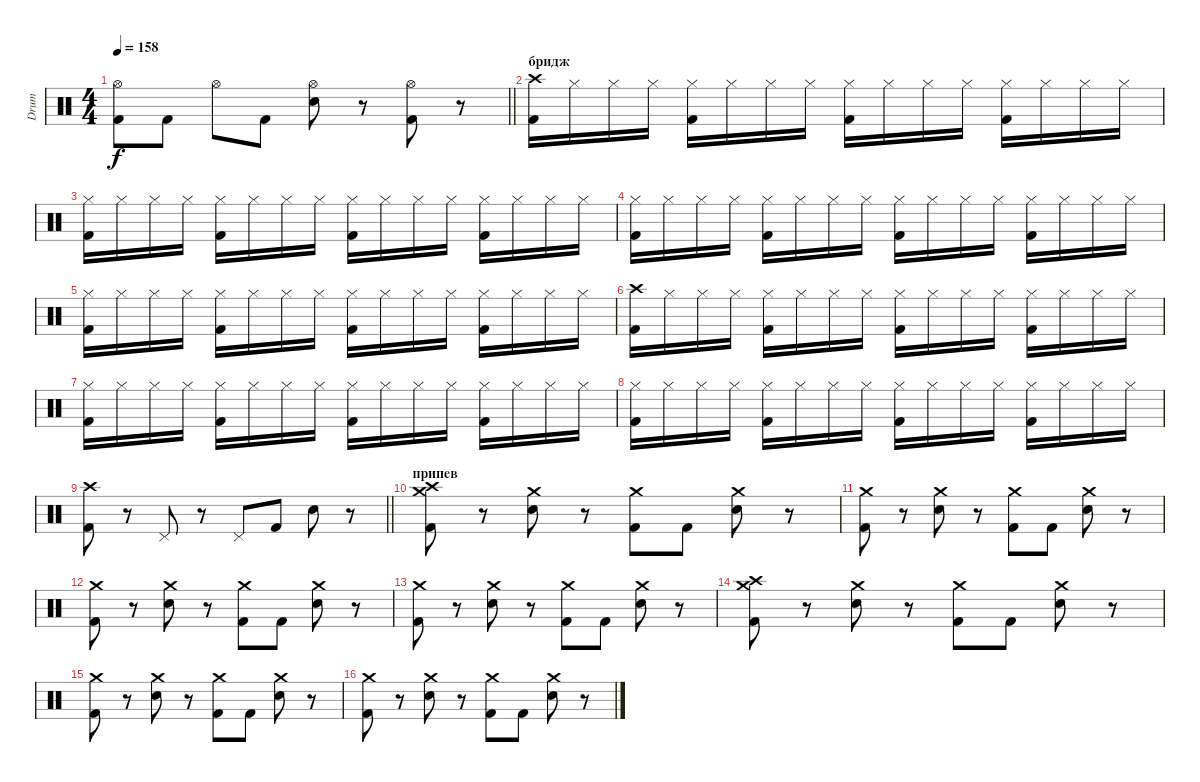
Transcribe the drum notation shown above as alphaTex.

\track ("Drum" "Drum") {instrument percussion}
\staff {score}
\articulation defaults
\ts (4 4)
\tempo 158
\clef neutral
\barLineRight lightlight
\ks c
("Hi-Hat (open)" "Kick (hit) 2").8{dy f} "Kick (hit) 2".8 "Hi-Hat (open)".8 "Kick (hit) 2".8 ("Hi-Hat (open)" "Snare (hit) 2").8 r.8 ("Hi-Hat (open)" "Kick (hit) 2").8 r.8 |
\section ("" "бридж")
("Crash high (hit)" "Kick (hit) 2").16 "Hi-Hat (closed)".16 "Hi-Hat (closed)".16 "Hi-Hat (closed)".16 ("Hi-Hat (closed)" "Kick (hit) 2").16 "Hi-Hat (closed)".16 "Hi-Hat (closed)".16 "Hi-Hat (closed)".16 ("Hi-Hat (closed)" "Kick (hit) 2").16 "Hi-Hat (closed)".16 "Hi-Hat (closed)".16 "Hi-Hat (closed)".16 ("Hi-Hat (closed)" "Kick (hit) 2").16 "Hi-Hat (closed)".16 "Hi-Hat (closed)".16 "Hi-Hat (closed)".16 |
("Hi-Hat (closed)" "Kick (hit) 2").16 "Hi-Hat (closed)".16 "Hi-Hat (closed)".16 "Hi-Hat (closed)".16 ("Hi-Hat (closed)" "Kick (hit) 2").16 "Hi-Hat (closed)".16 "Hi-Hat (closed)".16 "Hi-Hat (closed)".16 ("Hi-Hat (closed)" "Kick (hit) 2").16 "Hi-Hat (closed)".16 "Hi-Hat (closed)".16 "Hi-Hat (closed)".16 ("Hi-Hat (closed)" "Kick (hit) 2").16 "Hi-Hat (closed)".16 "Hi-Hat (closed)".16 "Hi-Hat (closed)".16 |
("Hi-Hat (closed)" "Kick (hit) 2").16 "Hi-Hat (closed)".16 "Hi-Hat (closed)".16 "Hi-Hat (closed)".16 ("Hi-Hat (closed)" "Kick (hit) 2").16 "Hi-Hat (closed)".16 "Hi-Hat (closed)".16 "Hi-Hat (closed)".16 ("Hi-Hat (closed)" "Kick (hit) 2").16 "Hi-Hat (closed)".16 "Hi-Hat (closed)".16 "Hi-Hat (closed)".16 ("Hi-Hat (closed)" "Kick (hit) 2").16 "Hi-Hat (closed)".16 "Hi-Hat (closed)".16 "Hi-Hat (closed)".16 |
("Hi-Hat (closed)" "Kick (hit) 2").16 "Hi-Hat (closed)".16 "Hi-Hat (closed)".16 "Hi-Hat (closed)".16 ("Hi-Hat (closed)" "Kick (hit) 2").16 "Hi-Hat (closed)".16 "Hi-Hat (closed)".16 "Hi-Hat (closed)".16 ("Hi-Hat (closed)" "Kick (hit) 2").16 "Hi-Hat (closed)".16 "Hi-Hat (closed)".16 "Hi-Hat (closed)".16 ("Hi-Hat (closed)" "Kick (hit) 2").16 "Hi-Hat (closed)".16 "Hi-Hat (closed)".16 "Hi-Hat (closed)".16 |
("Crash high (hit)" "Kick (hit) 2").16 "Hi-Hat (closed)".16 "Hi-Hat (closed)".16 "Hi-Hat (closed)".16 ("Hi-Hat (closed)" "Kick (hit) 2").16 "Hi-Hat (closed)".16 "Hi-Hat (closed)".16 "Hi-Hat (closed)".16 ("Hi-Hat (closed)" "Kick (hit) 2").16 "Hi-Hat (closed)".16 "Hi-Hat (closed)".16 "Hi-Hat (closed)".16 ("Hi-Hat (closed)" "Kick (hit) 2").16 "Hi-Hat (closed)".16 "Hi-Hat (closed)".16 "Hi-Hat (closed)".16 |
("Hi-Hat (closed)" "Kick (hit) 2").16 "Hi-Hat (closed)".16 "Hi-Hat (closed)".16 "Hi-Hat (closed)".16 ("Hi-Hat (closed)" "Kick (hit) 2").16 "Hi-Hat (closed)".16 "Hi-Hat (closed)".16 "Hi-Hat (closed)".16 ("Hi-Hat (closed)" "Kick (hit) 2").16 "Hi-Hat (closed)".16 "Hi-Hat (closed)".16 "Hi-Hat (closed)".16 ("Hi-Hat (closed)" "Kick (hit) 2").16 "Hi-Hat (closed)".16 "Hi-Hat (closed)".16 "Hi-Hat (closed)".16 |
("Hi-Hat (closed)" "Kick (hit) 2").16 "Hi-Hat (closed)".16 "Hi-Hat (closed)".16 "Hi-Hat (closed)".16 ("Hi-Hat (closed)" "Kick (hit) 2").16 "Hi-Hat (closed)".16 "Hi-Hat (closed)".16 "Hi-Hat (closed)".16 ("Hi-Hat (closed)" "Kick (hit) 2").16 "Hi-Hat (closed)".16 "Hi-Hat (closed)".16 "Hi-Hat (closed)".16 ("Hi-Hat (closed)" "Kick (hit) 2").16 "Hi-Hat (closed)".16 "Hi-Hat (closed)".16 "Hi-Hat (closed)".16 |
\barLineRight lightlight
("Crash high (hit)" "Kick (hit) 2").8 r.8 "Pedal Hi-Hat (hit)".8 r.8 "Pedal Hi-Hat (hit)".8 "Kick (hit) 2".8 "Snare (hit) 2".8 r.8 |
\section ("" "припев")
("Crash high (hit)" "Crash medium (hit)" "Kick (hit) 2").8 r.8 ("Crash medium (hit)" "Snare (hit) 2").8 r.8 ("Crash medium (hit)" "Kick (hit) 2").8 "Kick (hit) 2".8 ("Crash medium (hit)" "Snare (hit) 2").8 r.8 |
("Crash medium (hit)" "Kick (hit) 2").8 r.8 ("Crash medium (hit)" "Snare (hit) 2").8 r.8 ("Crash medium (hit)" "Kick (hit) 2").8 "Kick (hit) 2".8 ("Crash medium (hit)" "Snare (hit) 2").8 r.8 |
("Crash medium (hit)" "Kick (hit) 2").8 r.8 ("Crash medium (hit)" "Snare (hit) 2").8 r.8 ("Crash medium (hit)" "Kick (hit) 2").8 "Kick (hit) 2".8 ("Crash medium (hit)" "Snare (hit) 2").8 r.8 |
("Crash medium (hit)" "Kick (hit) 2").8 r.8 ("Crash medium (hit)" "Snare (hit) 2").8 r.8 ("Crash medium (hit)" "Kick (hit) 2").8 "Kick (hit) 2".8 ("Crash medium (hit)" "Snare (hit) 2").8 r.8 |
("Crash high (hit)" "Crash medium (hit)" "Kick (hit) 2").8 r.8 ("Crash medium (hit)" "Snare (hit) 2").8 r.8 ("Crash medium (hit)" "Kick (hit) 2").8 "Kick (hit) 2".8 ("Crash medium (hit)" "Snare (hit) 2").8 r.8 |
("Crash medium (hit)" "Kick (hit) 2").8 r.8 ("Crash medium (hit)" "Snare (hit) 2").8 r.8 ("Crash medium (hit)" "Kick (hit) 2").8 "Kick (hit) 2".8 ("Crash medium (hit)" "Snare (hit) 2").8 r.8 |
("Crash medium (hit)" "Kick (hit) 2").8 r.8 ("Crash medium (hit)" "Snare (hit) 2").8 r.8 ("Crash medium (hit)" "Kick (hit) 2").8 "Kick (hit) 2".8 ("Crash medium (hit)" "Snare (hit) 2").8 r.8
